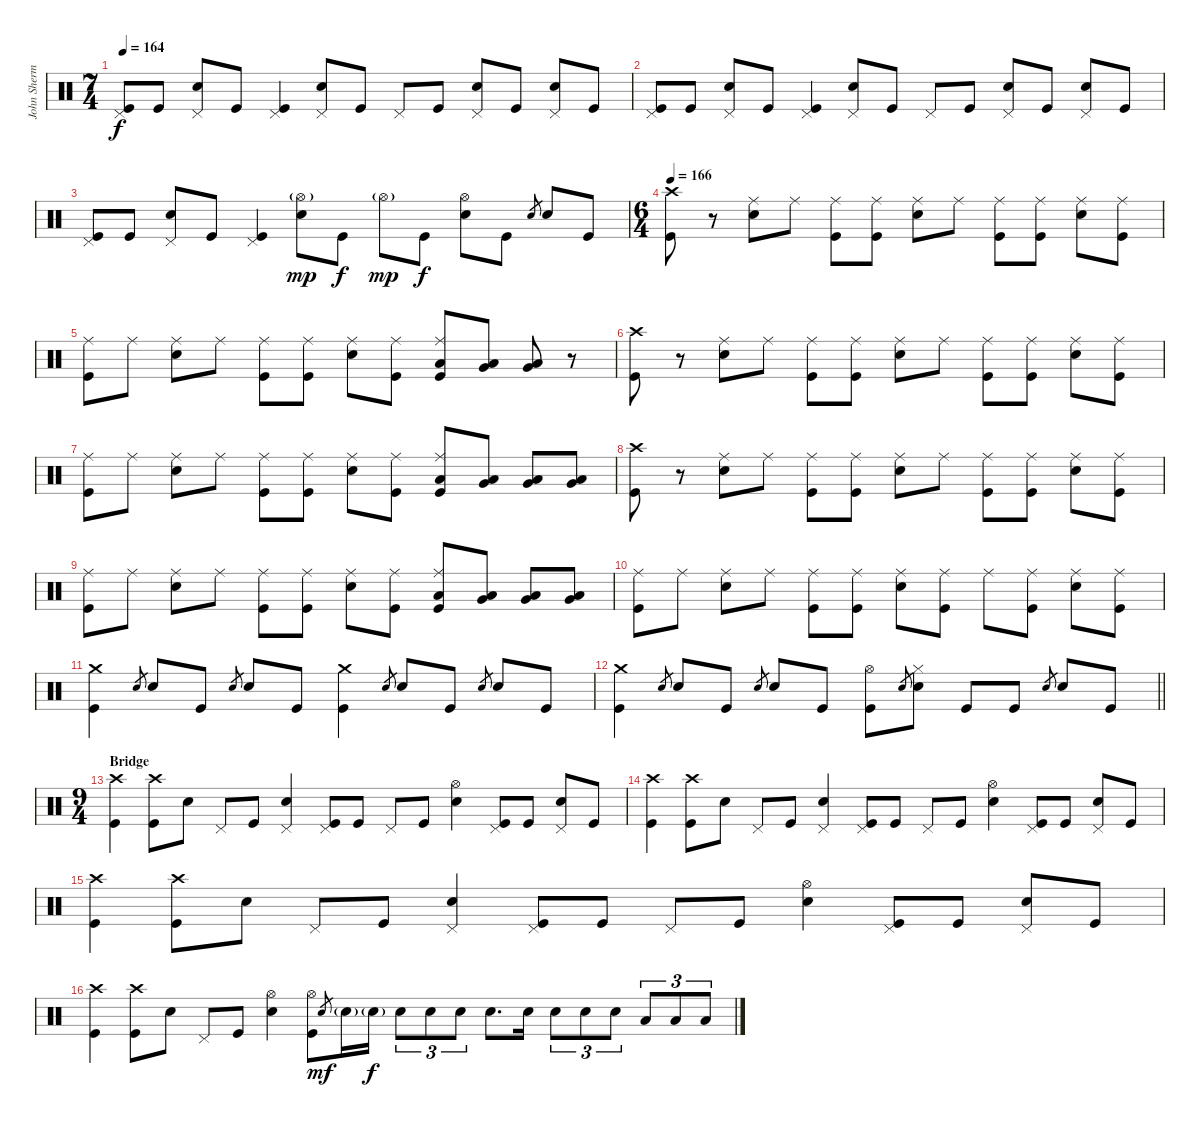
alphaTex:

\track ("John Sherman" "John Sherm") {instrument percussion}
\staff {score}
\articulation defaults
\ts (7 4)
\tempo 164
\clef neutral
\ks c
("Pedal Hi-Hat (hit)" "Kick (hit)").8{dy f} "Kick (hit)".8 ("Pedal Hi-Hat (hit)" "Electric Snare (hit)").8 "Kick (hit)".8 ("Pedal Hi-Hat (hit)" "Kick (hit)").4 ("Pedal Hi-Hat (hit)" "Electric Snare (hit)").8 "Kick (hit)".8 "Pedal Hi-Hat (hit)".8 "Kick (hit)".8 ("Pedal Hi-Hat (hit)" "Electric Snare (hit)").8 "Kick (hit)".8 ("Pedal Hi-Hat (hit)" "Electric Snare (hit)").8 "Kick (hit)".8 |
("Pedal Hi-Hat (hit)" "Kick (hit)").8 "Kick (hit)".8 ("Pedal Hi-Hat (hit)" "Electric Snare (hit)").8 "Kick (hit)".8 ("Pedal Hi-Hat (hit)" "Kick (hit)").4 ("Pedal Hi-Hat (hit)" "Electric Snare (hit)").8 "Kick (hit)".8 "Pedal Hi-Hat (hit)".8 "Kick (hit)".8 ("Pedal Hi-Hat (hit)" "Electric Snare (hit)").8 "Kick (hit)".8 ("Pedal Hi-Hat (hit)" "Electric Snare (hit)").8 "Kick (hit)".8 |
("Pedal Hi-Hat (hit)" "Kick (hit)").8 "Kick (hit)".8 ("Pedal Hi-Hat (hit)" "Electric Snare (hit)").8 "Kick (hit)".8 ("Pedal Hi-Hat (hit)" "Kick (hit)").4 ("Hi-Hat (open)"{g} "Electric Snare (hit)").8{dy mp} "Kick (hit)".8{dy f} "Hi-Hat (open)"{g}.8{dy mp} "Kick (hit)".8{dy f} ("Hi-Hat (open)" "Electric Snare (hit)").8 "Kick (hit)".8 "Electric Snare (hit)".8{gr} "Electric Snare (hit)".8 "Kick (hit)".8 |
\ts (6 4)
\tempo 166
("Crash high (hit)" "Kick (hit)").8 r.8 ("Ride (middle)" "Electric Snare (hit)").8 "Ride (middle)".8 ("Ride (middle)" "Kick (hit)").8 ("Ride (middle)" "Kick (hit)").8 ("Ride (middle)" "Electric Snare (hit)").8 "Ride (middle)".8 ("Ride (middle)" "Kick (hit)").8 ("Ride (middle)" "Kick (hit)").8 ("Ride (middle)" "Electric Snare (hit)").8 ("Ride (middle)" "Kick (hit)").8 |
("Ride (middle)" "Kick (hit)").8 "Ride (middle)".8 ("Ride (middle)" "Electric Snare (hit)").8 "Ride (middle)".8 ("Ride (middle)" "Kick (hit)").8 ("Ride (middle)" "Kick (hit)").8 ("Ride (middle)" "Electric Snare (hit)").8 ("Ride (middle)" "Kick (hit)").8 ("Ride (middle)" "Low Tom (hit)" "Kick (hit)").8 ("Very Low Tom (hit)" "Low Tom (hit)").8 ("Very Low Tom (hit)" "Low Tom (hit)").8 r.8 |
("Crash high (hit)" "Kick (hit)").8 r.8 ("Ride (middle)" "Electric Snare (hit)").8 "Ride (middle)".8 ("Ride (middle)" "Kick (hit)").8 ("Ride (middle)" "Kick (hit)").8 ("Ride (middle)" "Electric Snare (hit)").8 "Ride (middle)".8 ("Ride (middle)" "Kick (hit)").8 ("Ride (middle)" "Kick (hit)").8 ("Ride (middle)" "Electric Snare (hit)").8 ("Ride (middle)" "Kick (hit)").8 |
("Ride (middle)" "Kick (hit)").8 "Ride (middle)".8 ("Ride (middle)" "Electric Snare (hit)").8 "Ride (middle)".8 ("Ride (middle)" "Kick (hit)").8 ("Ride (middle)" "Kick (hit)").8 ("Ride (middle)" "Electric Snare (hit)").8 ("Ride (middle)" "Kick (hit)").8 ("Ride (middle)" "Low Tom (hit)" "Kick (hit)").8 ("Very Low Tom (hit)" "Low Tom (hit)").8 ("Very Low Tom (hit)" "Low Tom (hit)").8 ("Very Low Tom (hit)" "Low Tom (hit)").8 |
("Crash high (hit)" "Kick (hit)").8 r.8 ("Ride (middle)" "Electric Snare (hit)").8 "Ride (middle)".8 ("Ride (middle)" "Kick (hit)").8 ("Ride (middle)" "Kick (hit)").8 ("Ride (middle)" "Electric Snare (hit)").8 "Ride (middle)".8 ("Ride (middle)" "Kick (hit)").8 ("Ride (middle)" "Kick (hit)").8 ("Ride (middle)" "Electric Snare (hit)").8 ("Ride (middle)" "Kick (hit)").8 |
("Ride (middle)" "Kick (hit)").8 "Ride (middle)".8 ("Ride (middle)" "Electric Snare (hit)").8 "Ride (middle)".8 ("Ride (middle)" "Kick (hit)").8 ("Ride (middle)" "Kick (hit)").8 ("Ride (middle)" "Electric Snare (hit)").8 ("Ride (middle)" "Kick (hit)").8 ("Ride (middle)" "Low Tom (hit)" "Kick (hit)").8 ("Very Low Tom (hit)" "Low Tom (hit)").8 ("Very Low Tom (hit)" "Low Tom (hit)").8 ("Very Low Tom (hit)" "Low Tom (hit)").8 |
("Ride (middle)" "Kick (hit)").8 "Ride (middle)".8 ("Ride (middle)" "Electric Snare (hit)").8 "Ride (middle)".8 ("Ride (middle)" "Kick (hit)").8 ("Ride (middle)" "Kick (hit)").8 ("Ride (middle)" "Electric Snare (hit)").8 ("Ride (middle)" "Kick (hit)").8 "Ride (middle)".8 ("Ride (middle)" "Kick (hit)").8 ("Ride (middle)" "Electric Snare (hit)").8 ("Ride (middle)" "Kick (hit)").8 |
("Crash medium (hit)" "Kick (hit)").4 "Electric Snare (hit)".8{gr} "Electric Snare (hit)".8 "Kick (hit)".8 "Electric Snare (hit)".8{gr} "Electric Snare (hit)".8 "Kick (hit)".8 ("Crash medium (hit)" "Kick (hit)").4 "Electric Snare (hit)".8{gr} "Electric Snare (hit)".8 "Kick (hit)".8 "Electric Snare (hit)".8{gr} "Electric Snare (hit)".8 "Kick (hit)".8 |
\barLineRight lightlight
("Crash medium (hit)" "Kick (hit)").4 "Electric Snare (hit)".8{gr} "Electric Snare (hit)".8 "Kick (hit)".8 "Electric Snare (hit)".8{gr} "Electric Snare (hit)".8 "Kick (hit)".8 ("Hi-Hat (open)" "Kick (hit)").8 "Electric Snare (hit)".8{gr} ("Hi-Hat (closed)" "Electric Snare (hit)").8 "Kick (hit)".8 "Kick (hit)".8 "Electric Snare (hit)".8{gr} "Electric Snare (hit)".8 "Kick (hit)".8 |
\ts (9 4)
\section ("" "Bridge")
("Crash high (hit)" "Kick (hit)").4 ("Crash high (hit)" "Kick (hit)").8 "Electric Snare (hit)".8 "Pedal Hi-Hat (hit)".8 "Kick (hit)".8 ("Pedal Hi-Hat (hit)" "Electric Snare (hit)").4 ("Pedal Hi-Hat (hit)" "Kick (hit)").8 "Kick (hit)".8 "Pedal Hi-Hat (hit)".8 "Kick (hit)".8 ("Hi-Hat (open)" "Electric Snare (hit)").4 ("Pedal Hi-Hat (hit)" "Kick (hit)").8 "Kick (hit)".8 ("Pedal Hi-Hat (hit)" "Electric Snare (hit)").8 "Kick (hit)".8 |
("Crash high (hit)" "Kick (hit)").4 ("Crash high (hit)" "Kick (hit)").8 "Electric Snare (hit)".8 "Pedal Hi-Hat (hit)".8 "Kick (hit)".8 ("Pedal Hi-Hat (hit)" "Electric Snare (hit)").4 ("Pedal Hi-Hat (hit)" "Kick (hit)").8 "Kick (hit)".8 "Pedal Hi-Hat (hit)".8 "Kick (hit)".8 ("Hi-Hat (open)" "Electric Snare (hit)").4 ("Pedal Hi-Hat (hit)" "Kick (hit)").8 "Kick (hit)".8 ("Pedal Hi-Hat (hit)" "Electric Snare (hit)").8 "Kick (hit)".8 |
("Crash high (hit)" "Kick (hit)").4 ("Crash high (hit)" "Kick (hit)").8 "Electric Snare (hit)".8 "Pedal Hi-Hat (hit)".8 "Kick (hit)".8 ("Pedal Hi-Hat (hit)" "Electric Snare (hit)").4 ("Pedal Hi-Hat (hit)" "Kick (hit)").8 "Kick (hit)".8 "Pedal Hi-Hat (hit)".8 "Kick (hit)".8 ("Hi-Hat (open)" "Electric Snare (hit)").4 ("Pedal Hi-Hat (hit)" "Kick (hit)").8 "Kick (hit)".8 ("Pedal Hi-Hat (hit)" "Electric Snare (hit)").8 "Kick (hit)".8 |
("Crash high (hit)" "Kick (hit)").4 ("Crash high (hit)" "Kick (hit)").8 "Electric Snare (hit)".8 "Pedal Hi-Hat (hit)".8 "Kick (hit)".8 ("Hi-Hat (open)" "Electric Snare (hit)").4 ("Hi-Hat (open)" "Kick (hit)").8 "Electric Snare (hit)".8{gr dy mf} "Electric Snare (hit)"{g}.16 "Electric Snare (hit)"{g}.16{dy f} "Electric Snare (hit)".8{tu (3 2)} "Electric Snare (hit)".8{tu (3 2)} "Electric Snare (hit)".8{tu (3 2)} "Electric Snare (hit)".8{d} "Electric Snare (hit)".16 "Electric Snare (hit)".8{tu (3 2)} "Electric Snare (hit)".8{tu (3 2)} "Electric Snare (hit)".8{tu (3 2)} "Low Tom (hit)".8{tu (3 2)} "Low Tom (hit)".8{tu (3 2)} "Low Tom (hit)".8{tu (3 2)}
